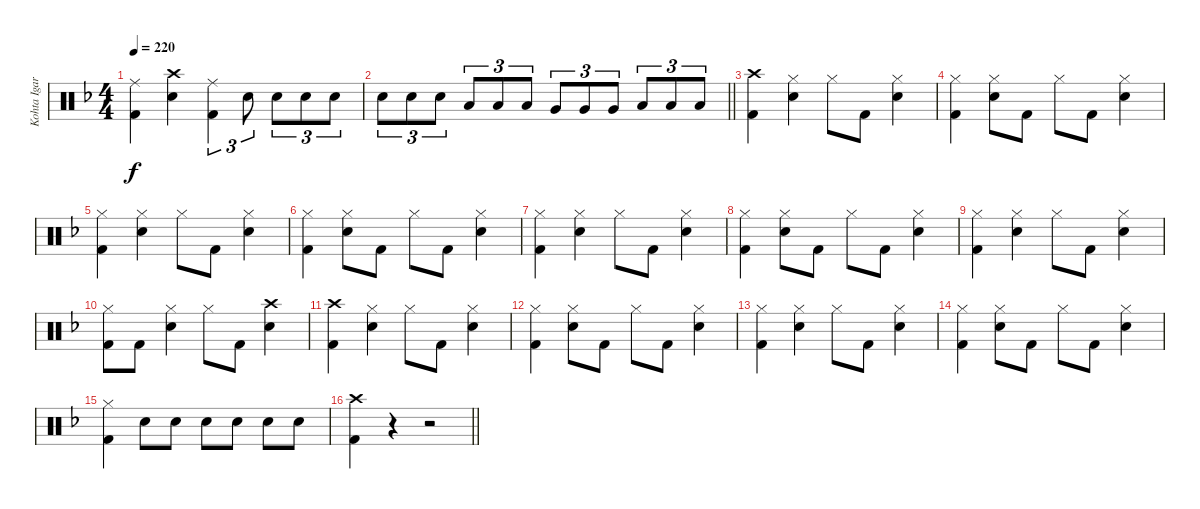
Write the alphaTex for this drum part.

\track ("Kohta Igarashi" "Kohta Igar") {instrument percussion}
\staff {score}
\articulation defaults
\ts (4 4)
\tempo 220
\clef neutral
\ks f
("Ride (middle)" "Kick (hit) 2").4{dy f} ("Crash high (hit)" "Electric Snare (hit)").4 ("Ride (middle)" "Kick (hit) 2").4{tu (3 2)} "Electric Snare (hit)".8{tu (3 2)} "Electric Snare (hit)".8{tu (3 2)} "Electric Snare (hit)".8{tu (3 2)} "Electric Snare (hit)".8{tu (3 2)} |
\barLineRight lightlight "Electric Snare (hit)".8{tu (3 2)} "Electric Snare (hit)".8{tu (3 2)} "Electric Snare (hit)".8{tu (3 2)} "Low Tom (hit)".8{tu (3 2)} "Low Tom (hit)".8{tu (3 2)} "Low Tom (hit)".8{tu (3 2)} "Very Low Tom (hit)".8{tu (3 2)} "Very Low Tom (hit)".8{tu (3 2)} "Very Low Tom (hit)".8{tu (3 2)} "Low Floor Tom (hit)".8{tu (3 2)} "Low Floor Tom (hit)".8{tu (3 2)} "Low Floor Tom (hit)".8{tu (3 2)}
|
("Crash high (hit)" "Kick (hit) 2").4 ("Hi-Hat (closed)" "Electric Snare (hit)").4 "Hi-Hat (closed)".8 "Kick (hit) 2".8 ("Hi-Hat (closed)" "Electric Snare (hit)").4 |
("Hi-Hat (closed)" "Kick (hit) 2").4 ("Hi-Hat (closed)" "Electric Snare (hit)").8 "Kick (hit) 2".8 "Hi-Hat (closed)".8 "Kick (hit) 2".8 ("Hi-Hat (closed)" "Electric Snare (hit)").4 |
("Hi-Hat (closed)" "Kick (hit) 2").4 ("Hi-Hat (closed)" "Electric Snare (hit)").4 "Hi-Hat (closed)".8 "Kick (hit) 2".8 ("Hi-Hat (closed)" "Electric Snare (hit)").4 |
("Hi-Hat (closed)" "Kick (hit) 2").4 ("Hi-Hat (closed)" "Electric Snare (hit)").8 "Kick (hit) 2".8 "Hi-Hat (closed)".8 "Kick (hit) 2".8 ("Hi-Hat (closed)" "Electric Snare (hit)").4 |
("Hi-Hat (closed)" "Kick (hit) 2").4 ("Hi-Hat (closed)" "Electric Snare (hit)").4 "Hi-Hat (closed)".8 "Kick (hit) 2".8 ("Hi-Hat (closed)" "Electric Snare (hit)").4 |
("Hi-Hat (closed)" "Kick (hit) 2").4 ("Hi-Hat (closed)" "Electric Snare (hit)").8 "Kick (hit) 2".8 "Hi-Hat (closed)".8 "Kick (hit) 2".8 ("Hi-Hat (closed)" "Electric Snare (hit)").4 |
("Hi-Hat (closed)" "Kick (hit) 2").4 ("Hi-Hat (closed)" "Electric Snare (hit)").4 "Hi-Hat (closed)".8 "Kick (hit) 2".8 ("Hi-Hat (closed)" "Electric Snare (hit)").4 |
("Hi-Hat (closed)" "Kick (hit) 2").8 "Kick (hit) 2".8 ("Hi-Hat (closed)" "Electric Snare (hit)").4 "Hi-Hat (closed)".8 "Kick (hit) 2".8 ("Crash high (hit)" "Electric Snare (hit)").4 |
("Crash high (hit)" "Kick (hit) 2").4 ("Hi-Hat (closed)" "Electric Snare (hit)").4 "Hi-Hat (closed)".8 "Kick (hit) 2".8 ("Hi-Hat (closed)" "Electric Snare (hit)").4 |
("Hi-Hat (closed)" "Kick (hit) 2").4 ("Hi-Hat (closed)" "Electric Snare (hit)").8 "Kick (hit) 2".8 "Hi-Hat (closed)".8 "Kick (hit) 2".8 ("Hi-Hat (closed)" "Electric Snare (hit)").4 |
("Hi-Hat (closed)" "Kick (hit) 2").4 ("Hi-Hat (closed)" "Electric Snare (hit)").4 "Hi-Hat (closed)".8 "Kick (hit) 2".8 ("Hi-Hat (closed)" "Electric Snare (hit)").4 |
("Hi-Hat (closed)" "Kick (hit) 2").4 ("Hi-Hat (closed)" "Electric Snare (hit)").8 "Kick (hit) 2".8 "Hi-Hat (closed)".8 "Kick (hit) 2".8 ("Hi-Hat (closed)" "Electric Snare (hit)").4 |
("Hi-Hat (closed)" "Kick (hit) 2").4 "Electric Snare (hit)".8 "Electric Snare (hit)".8 "Electric Snare (hit)".8 "Electric Snare (hit)".8 "Electric Snare (hit)".8 "Electric Snare (hit)".8 |
\barLineRight lightlight
("Crash high (hit)" "Kick (hit) 2").4 r.4 r.2
